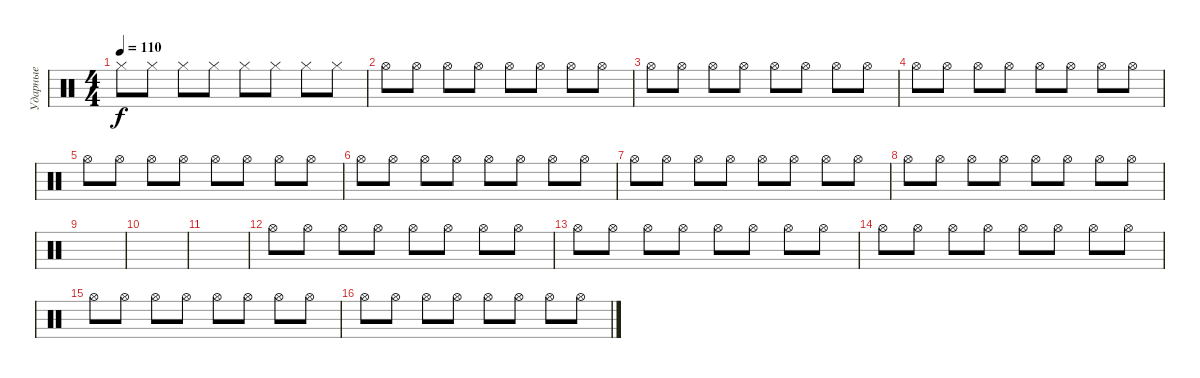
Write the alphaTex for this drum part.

\track ("Ударные" "Ударные") {instrument percussion}
\staff {score}
\articulation defaults
\ts (4 4)
\tempo 110
\clef neutral
\ks c "Hi-Hat (closed)".8{dy f} "Hi-Hat (closed)".8 "Hi-Hat (closed)".8 "Hi-Hat (closed)".8 "Hi-Hat (closed)".8 "Hi-Hat (closed)".8 "Hi-Hat (closed)".8 "Hi-Hat (closed)".8
|
"Hi-Hat (open)".8 "Hi-Hat (open)".8 "Hi-Hat (open)".8 "Hi-Hat (open)".8 "Hi-Hat (open)".8 "Hi-Hat (open)".8 "Hi-Hat (open)".8 "Hi-Hat (open)".8 |
"Hi-Hat (open)".8 "Hi-Hat (open)".8 "Hi-Hat (open)".8 "Hi-Hat (open)".8 "Hi-Hat (open)".8 "Hi-Hat (open)".8 "Hi-Hat (open)".8 "Hi-Hat (open)".8 |
"Hi-Hat (open)".8 "Hi-Hat (open)".8 "Hi-Hat (open)".8 "Hi-Hat (open)".8 "Hi-Hat (open)".8 "Hi-Hat (open)".8 "Hi-Hat (open)".8 "Hi-Hat (open)".8 |
"Hi-Hat (open)".8 "Hi-Hat (open)".8 "Hi-Hat (open)".8 "Hi-Hat (open)".8 "Hi-Hat (open)".8 "Hi-Hat (open)".8 "Hi-Hat (open)".8 "Hi-Hat (open)".8 |
"Hi-Hat (open)".8 "Hi-Hat (open)".8 "Hi-Hat (open)".8 "Hi-Hat (open)".8 "Hi-Hat (open)".8 "Hi-Hat (open)".8 "Hi-Hat (open)".8 "Hi-Hat (open)".8 |
"Hi-Hat (open)".8 "Hi-Hat (open)".8 "Hi-Hat (open)".8 "Hi-Hat (open)".8 "Hi-Hat (open)".8 "Hi-Hat (open)".8 "Hi-Hat (open)".8 "Hi-Hat (open)".8 |
"Hi-Hat (open)".8 "Hi-Hat (open)".8 "Hi-Hat (open)".8 "Hi-Hat (open)".8 "Hi-Hat (open)".8 "Hi-Hat (open)".8 "Hi-Hat (open)".8 "Hi-Hat (open)".8 |
|
|
|
"Hi-Hat (open)".8 "Hi-Hat (open)".8 "Hi-Hat (open)".8 "Hi-Hat (open)".8 "Hi-Hat (open)".8 "Hi-Hat (open)".8 "Hi-Hat (open)".8 "Hi-Hat (open)".8 |
"Hi-Hat (open)".8 "Hi-Hat (open)".8 "Hi-Hat (open)".8 "Hi-Hat (open)".8 "Hi-Hat (open)".8 "Hi-Hat (open)".8 "Hi-Hat (open)".8 "Hi-Hat (open)".8 |
"Hi-Hat (open)".8 "Hi-Hat (open)".8 "Hi-Hat (open)".8 "Hi-Hat (open)".8 "Hi-Hat (open)".8 "Hi-Hat (open)".8 "Hi-Hat (open)".8 "Hi-Hat (open)".8 |
"Hi-Hat (open)".8 "Hi-Hat (open)".8 "Hi-Hat (open)".8 "Hi-Hat (open)".8 "Hi-Hat (open)".8 "Hi-Hat (open)".8 "Hi-Hat (open)".8 "Hi-Hat (open)".8 |
"Hi-Hat (open)".8 "Hi-Hat (open)".8 "Hi-Hat (open)".8 "Hi-Hat (open)".8 "Hi-Hat (open)".8 "Hi-Hat (open)".8 "Hi-Hat (open)".8 "Hi-Hat (open)".8
